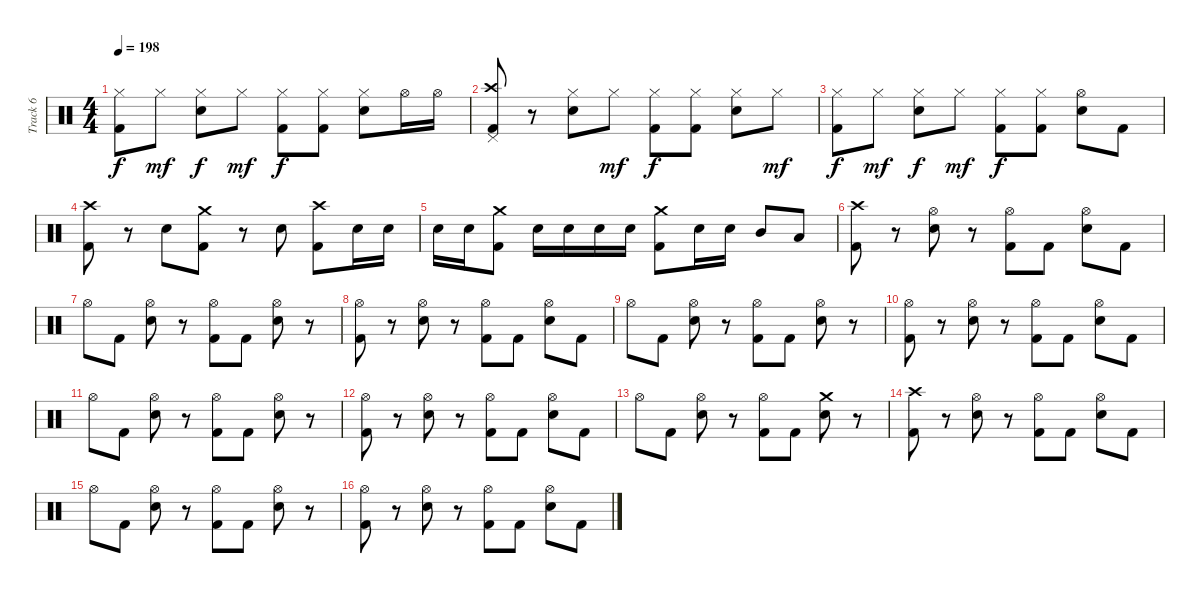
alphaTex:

\track ("Track 6" "Track 6") {instrument percussion}
\staff {score}
\articulation defaults
\ts (4 4)
\tempo 198
\clef neutral
\ks c
("Hi-Hat (closed)" "Kick (hit) 2").8{dy f} "Hi-Hat (closed)".8{dy mf} ("Hi-Hat (closed)" "Electric Snare (hit)").8{dy f} "Hi-Hat (closed)".8{dy mf} ("Hi-Hat (closed)" "Kick (hit) 2").8{dy f} ("Hi-Hat (closed)" "Kick (hit) 2").8 ("Hi-Hat (closed)" "Electric Snare (hit)").8 "Hi-Hat (open)".16 "Hi-Hat (open)".16 |
("Crash high (hit)" "Pedal Hi-Hat (hit)" "Kick (hit) 2").8 r.8 ("Hi-Hat (closed)" "Electric Snare (hit)").8 "Hi-Hat (closed)".8{dy mf} ("Hi-Hat (closed)" "Kick (hit) 2").8{dy f} ("Hi-Hat (closed)" "Kick (hit) 2").8 ("Hi-Hat (closed)" "Electric Snare (hit)").8 "Hi-Hat (closed)".8{dy mf} |
("Hi-Hat (closed)" "Kick (hit) 2").8{dy f} "Hi-Hat (closed)".8{dy mf} ("Hi-Hat (closed)" "Electric Snare (hit)").8{dy f} "Hi-Hat (closed)".8{dy mf} ("Hi-Hat (closed)" "Kick (hit) 2").8{dy f} ("Hi-Hat (closed)" "Kick (hit) 2").8 ("Hi-Hat (open)" "Electric Snare (hit)").8 "Kick (hit) 2".8 |
("Crash high (hit)" "Kick (hit) 2").8 r.8 "Electric Snare (hit)".8 ("Crash medium (hit)" "Kick (hit) 2").8 r.8 "Electric Snare (hit)".8 ("Crash high (hit)" "Kick (hit) 2").8 "Electric Snare (hit)".16 "Electric Snare (hit)".16 |
"Electric Snare (hit)".16 "Electric Snare (hit)".16 ("Crash medium (hit)" "Kick (hit) 2").8 "Electric Snare (hit)".16 "Electric Snare (hit)".16 "Electric Snare (hit)".16 "Electric Snare (hit)".16 ("Crash medium (hit)" "Kick (hit) 2").8 "Electric Snare (hit)".16 "Electric Snare (hit)".16 "Mid Tom (hit)".8 "Low Tom (hit)".8 |
("Crash high (hit)" "Kick (hit) 2").8 r.8 ("Hi-Hat (open)" "Electric Snare (hit)").8 r.8 ("Hi-Hat (open)" "Kick (hit) 2").8 "Kick (hit) 2".8 ("Hi-Hat (open)" "Electric Snare (hit)").8 "Kick (hit) 2".8 |
"Hi-Hat (open)".8 "Kick (hit) 2".8 ("Hi-Hat (open)" "Electric Snare (hit)").8 r.8 ("Hi-Hat (open)" "Kick (hit) 2").8 "Kick (hit) 2".8 ("Hi-Hat (open)" "Electric Snare (hit)").8 r.8 |
("Hi-Hat (open)" "Kick (hit) 2").8 r.8 ("Hi-Hat (open)" "Electric Snare (hit)").8 r.8 ("Hi-Hat (open)" "Kick (hit) 2").8 "Kick (hit) 2".8 ("Hi-Hat (open)" "Electric Snare (hit)").8 "Kick (hit) 2".8 |
"Hi-Hat (open)".8 "Kick (hit) 2".8 ("Hi-Hat (open)" "Electric Snare (hit)").8 r.8 ("Hi-Hat (open)" "Kick (hit) 2").8 "Kick (hit) 2".8 ("Hi-Hat (open)" "Electric Snare (hit)").8 r.8 |
("Hi-Hat (open)" "Kick (hit) 2").8 r.8 ("Hi-Hat (open)" "Electric Snare (hit)").8 r.8 ("Hi-Hat (open)" "Kick (hit) 2").8 "Kick (hit) 2".8 ("Hi-Hat (open)" "Electric Snare (hit)").8 "Kick (hit) 2".8 |
"Hi-Hat (open)".8 "Kick (hit) 2".8 ("Hi-Hat (open)" "Electric Snare (hit)").8 r.8 ("Hi-Hat (open)" "Kick (hit) 2").8 "Kick (hit) 2".8 ("Hi-Hat (open)" "Electric Snare (hit)").8 r.8 |
("Hi-Hat (open)" "Kick (hit) 2").8 r.8 ("Hi-Hat (open)" "Electric Snare (hit)").8 r.8 ("Hi-Hat (open)" "Kick (hit) 2").8 "Kick (hit) 2".8 ("Hi-Hat (open)" "Electric Snare (hit)").8 "Kick (hit) 2".8 |
"Hi-Hat (open)".8 "Kick (hit) 2".8 ("Hi-Hat (open)" "Electric Snare (hit)").8 r.8 ("Hi-Hat (open)" "Kick (hit) 2").8 "Kick (hit) 2".8 ("Crash medium (hit)" "Electric Snare (hit)").8 r.8 |
("Crash high (hit)" "Kick (hit) 2").8 r.8 ("Hi-Hat (open)" "Electric Snare (hit)").8 r.8 ("Hi-Hat (open)" "Kick (hit) 2").8 "Kick (hit) 2".8 ("Hi-Hat (open)" "Electric Snare (hit)").8 "Kick (hit) 2".8 |
"Hi-Hat (open)".8 "Kick (hit) 2".8 ("Hi-Hat (open)" "Electric Snare (hit)").8 r.8 ("Hi-Hat (open)" "Kick (hit) 2").8 "Kick (hit) 2".8 ("Hi-Hat (open)" "Electric Snare (hit)").8 r.8 |
("Hi-Hat (open)" "Kick (hit) 2").8 r.8 ("Hi-Hat (open)" "Electric Snare (hit)").8 r.8 ("Hi-Hat (open)" "Kick (hit) 2").8 "Kick (hit) 2".8 ("Hi-Hat (open)" "Electric Snare (hit)").8 "Kick (hit) 2".8
